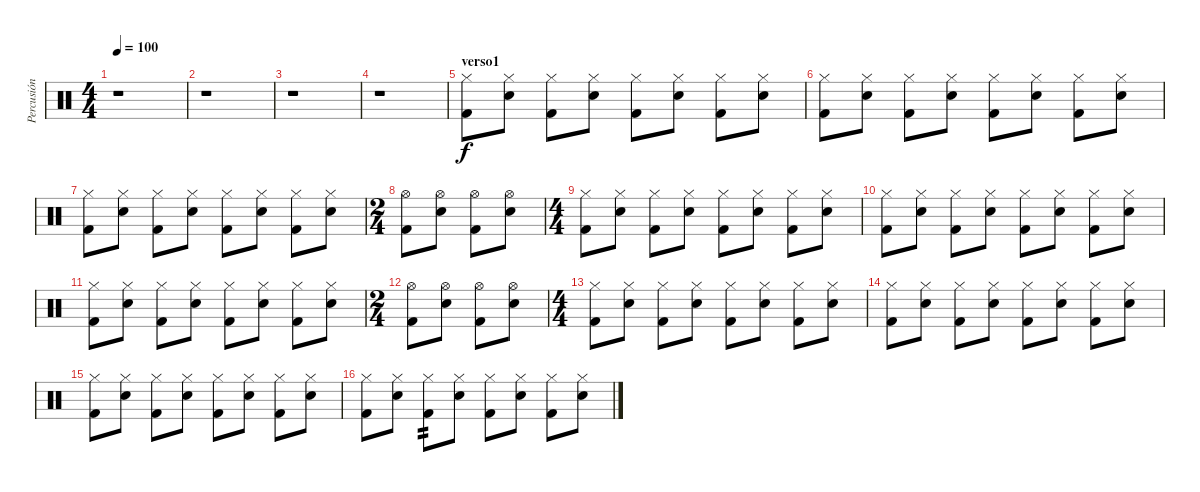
\track ("Percusión" "Percusión") {instrument percussion}
\staff {score}
\articulation defaults
\ts (4 4)
\tempo 100
\clef neutral
\ks c
r.1{dy f} |
r.1 |
r.1 |
r.1 |
\section ("" "verso1")
("Hi-Hat (closed)" "Kick (hit) 2").8 ("Hi-Hat (closed)" "Electric Snare (hit)").8 ("Hi-Hat (closed)" "Kick (hit) 2").8 ("Hi-Hat (closed)" "Electric Snare (hit)").8 ("Hi-Hat (closed)" "Kick (hit) 2").8 ("Hi-Hat (closed)" "Electric Snare (hit)").8 ("Hi-Hat (closed)" "Kick (hit) 2").8 ("Hi-Hat (closed)" "Electric Snare (hit)").8 |
("Hi-Hat (closed)" "Kick (hit) 2").8 ("Hi-Hat (closed)" "Electric Snare (hit)").8 ("Hi-Hat (closed)" "Kick (hit) 2").8 ("Hi-Hat (closed)" "Electric Snare (hit)").8 ("Hi-Hat (closed)" "Kick (hit) 2").8 ("Hi-Hat (closed)" "Electric Snare (hit)").8 ("Hi-Hat (closed)" "Kick (hit) 2").8 ("Hi-Hat (closed)" "Electric Snare (hit)").8 |
("Hi-Hat (closed)" "Kick (hit) 2").8 ("Hi-Hat (closed)" "Electric Snare (hit)").8 ("Hi-Hat (closed)" "Kick (hit) 2").8 ("Hi-Hat (closed)" "Electric Snare (hit)").8 ("Hi-Hat (closed)" "Kick (hit) 2").8 ("Hi-Hat (closed)" "Electric Snare (hit)").8 ("Hi-Hat (closed)" "Kick (hit) 2").8 ("Hi-Hat (closed)" "Electric Snare (hit)").8 |
\ts (2 4)
("Hi-Hat (open)" "Kick (hit) 2").8 ("Hi-Hat (open)" "Electric Snare (hit)").8 ("Hi-Hat (open)" "Kick (hit) 2").8 ("Hi-Hat (open)" "Electric Snare (hit)").8 |
\ts (4 4)
("Hi-Hat (closed)" "Kick (hit) 2").8 ("Hi-Hat (closed)" "Electric Snare (hit)").8 ("Hi-Hat (closed)" "Kick (hit) 2").8 ("Hi-Hat (closed)" "Electric Snare (hit)").8 ("Hi-Hat (closed)" "Kick (hit) 2").8 ("Hi-Hat (closed)" "Electric Snare (hit)").8 ("Hi-Hat (closed)" "Kick (hit) 2").8 ("Hi-Hat (closed)" "Electric Snare (hit)").8 |
("Hi-Hat (closed)" "Kick (hit) 2").8 ("Hi-Hat (closed)" "Electric Snare (hit)").8 ("Hi-Hat (closed)" "Kick (hit) 2").8 ("Hi-Hat (closed)" "Electric Snare (hit)").8 ("Hi-Hat (closed)" "Kick (hit) 2").8 ("Hi-Hat (closed)" "Electric Snare (hit)").8 ("Hi-Hat (closed)" "Kick (hit) 2").8 ("Hi-Hat (closed)" "Electric Snare (hit)").8 |
("Hi-Hat (closed)" "Kick (hit) 2").8 ("Hi-Hat (closed)" "Electric Snare (hit)").8 ("Hi-Hat (closed)" "Kick (hit) 2").8 ("Hi-Hat (closed)" "Electric Snare (hit)").8 ("Hi-Hat (closed)" "Kick (hit) 2").8 ("Hi-Hat (closed)" "Electric Snare (hit)").8 ("Hi-Hat (closed)" "Kick (hit) 2").8 ("Hi-Hat (closed)" "Electric Snare (hit)").8 |
\ts (2 4)
("Hi-Hat (open)" "Kick (hit) 2").8 ("Hi-Hat (open)" "Electric Snare (hit)").8 ("Hi-Hat (open)" "Kick (hit) 2").8 ("Hi-Hat (open)" "Electric Snare (hit)").8 |
\ts (4 4)
("Hi-Hat (closed)" "Kick (hit) 2").8 ("Hi-Hat (closed)" "Electric Snare (hit)").8 ("Hi-Hat (closed)" "Kick (hit) 2").8 ("Hi-Hat (closed)" "Electric Snare (hit)").8 ("Hi-Hat (closed)" "Kick (hit) 2").8 ("Hi-Hat (closed)" "Electric Snare (hit)").8 ("Hi-Hat (closed)" "Kick (hit) 2").8 ("Hi-Hat (closed)" "Electric Snare (hit)").8 |
("Hi-Hat (closed)" "Kick (hit) 2").8 ("Hi-Hat (closed)" "Electric Snare (hit)").8 ("Hi-Hat (closed)" "Kick (hit) 2").8 ("Hi-Hat (closed)" "Electric Snare (hit)").8 ("Hi-Hat (closed)" "Kick (hit) 2").8 ("Hi-Hat (closed)" "Electric Snare (hit)").8 ("Hi-Hat (closed)" "Kick (hit) 2").8 ("Hi-Hat (closed)" "Electric Snare (hit)").8 |
("Hi-Hat (closed)" "Kick (hit) 2").8 ("Hi-Hat (closed)" "Electric Snare (hit)").8 ("Hi-Hat (closed)" "Kick (hit) 2").8 ("Hi-Hat (closed)" "Electric Snare (hit)").8 ("Hi-Hat (closed)" "Kick (hit) 2").8 ("Hi-Hat (closed)" "Electric Snare (hit)").8 ("Hi-Hat (closed)" "Kick (hit) 2").8 ("Hi-Hat (closed)" "Electric Snare (hit)").8 |
("Hi-Hat (closed)" "Kick (hit) 2").8 ("Hi-Hat (closed)" "Electric Snare (hit)").8 ("Hi-Hat (closed)" "Kick (hit) 2").8{tp 2} ("Hi-Hat (closed)" "Electric Snare (hit)").8 ("Hi-Hat (closed)" "Kick (hit) 2").8 ("Hi-Hat (closed)" "Electric Snare (hit)").8 ("Hi-Hat (closed)" "Kick (hit) 2").8 ("Hi-Hat (closed)" "Electric Snare (hit)").8
